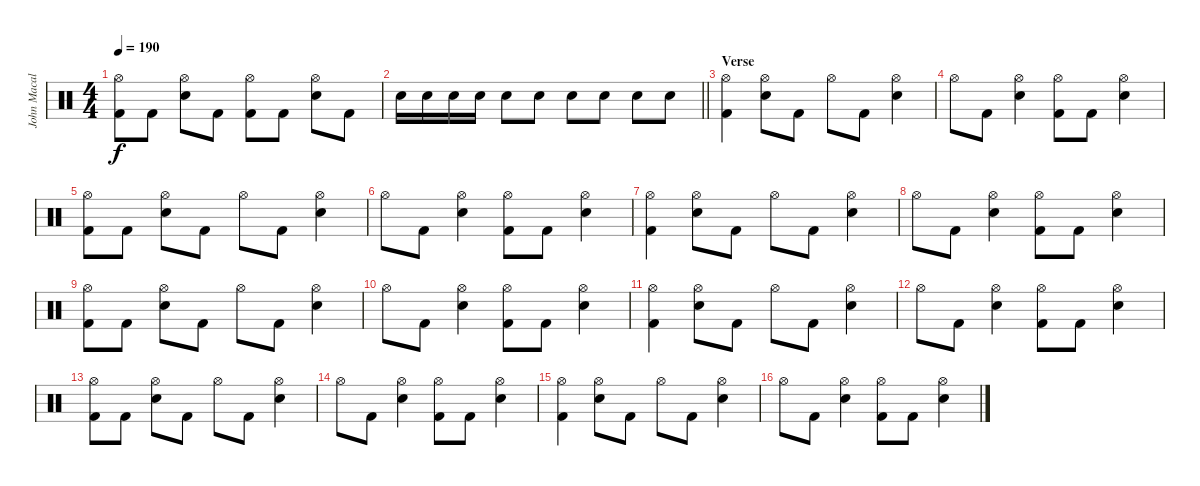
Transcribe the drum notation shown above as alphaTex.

\track ("John Macaluso" "John Macal") {instrument percussion}
\staff {score}
\articulation defaults
\ts (4 4)
\tempo 190
\clef neutral
\ks c
("Hi-Hat (open)" "Kick (hit) 2").8{dy f} "Kick (hit) 2".8 ("Hi-Hat (open)" "Snare (hit) 2").8 "Kick (hit) 2".8 ("Hi-Hat (open)" "Kick (hit) 2").8 "Kick (hit) 2".8 ("Hi-Hat (open)" "Snare (hit) 2").8 "Kick (hit) 2".8 |
\barLineRight lightlight "Snare (hit) 2".16 "Snare (hit) 2".16 "Snare (hit) 2".16 "Snare (hit) 2".16 "Snare (hit) 2".8 "Snare (hit) 2".8 "Snare (hit) 2".8 "Snare (hit) 2".8 "Snare (hit) 2".8 "Snare (hit) 2".8
|
\section ("" "Verse")
("Hi-Hat (open)" "Kick (hit) 2").4 ("Hi-Hat (open)" "Snare (hit) 2").8 "Kick (hit) 2".8 "Hi-Hat (open)".8 "Kick (hit) 2".8 ("Hi-Hat (open)" "Snare (hit) 2").4 |
"Hi-Hat (open)".8 "Kick (hit) 2".8 ("Hi-Hat (open)" "Snare (hit) 2").4 ("Hi-Hat (open)" "Kick (hit) 2").8 "Kick (hit) 2".8 ("Hi-Hat (open)" "Snare (hit) 2").4 |
("Hi-Hat (open)" "Kick (hit) 2").8 "Kick (hit) 2".8 ("Hi-Hat (open)" "Snare (hit) 2").8 "Kick (hit) 2".8 "Hi-Hat (open)".8 "Kick (hit) 2".8 ("Hi-Hat (open)" "Snare (hit) 2").4 |
"Hi-Hat (open)".8 "Kick (hit) 2".8 ("Hi-Hat (open)" "Snare (hit) 2").4 ("Hi-Hat (open)" "Kick (hit) 2").8 "Kick (hit) 2".8 ("Hi-Hat (open)" "Snare (hit) 2").4 |
("Hi-Hat (open)" "Kick (hit) 2").4 ("Hi-Hat (open)" "Snare (hit) 2").8 "Kick (hit) 2".8 "Hi-Hat (open)".8 "Kick (hit) 2".8 ("Hi-Hat (open)" "Snare (hit) 2").4 |
"Hi-Hat (open)".8 "Kick (hit) 2".8 ("Hi-Hat (open)" "Snare (hit) 2").4 ("Hi-Hat (open)" "Kick (hit) 2").8 "Kick (hit) 2".8 ("Hi-Hat (open)" "Snare (hit) 2").4 |
("Hi-Hat (open)" "Kick (hit) 2").8 "Kick (hit) 2".8 ("Hi-Hat (open)" "Snare (hit) 2").8 "Kick (hit) 2".8 "Hi-Hat (open)".8 "Kick (hit) 2".8 ("Hi-Hat (open)" "Snare (hit) 2").4 |
"Hi-Hat (open)".8 "Kick (hit) 2".8 ("Hi-Hat (open)" "Snare (hit) 2").4 ("Hi-Hat (open)" "Kick (hit) 2").8 "Kick (hit) 2".8 ("Hi-Hat (open)" "Snare (hit) 2").4 |
("Hi-Hat (open)" "Kick (hit) 2").4 ("Hi-Hat (open)" "Snare (hit) 2").8 "Kick (hit) 2".8 "Hi-Hat (open)".8 "Kick (hit) 2".8 ("Hi-Hat (open)" "Snare (hit) 2").4 |
"Hi-Hat (open)".8 "Kick (hit) 2".8 ("Hi-Hat (open)" "Snare (hit) 2").4 ("Hi-Hat (open)" "Kick (hit) 2").8 "Kick (hit) 2".8 ("Hi-Hat (open)" "Snare (hit) 2").4 |
("Hi-Hat (open)" "Kick (hit) 2").8 "Kick (hit) 2".8 ("Hi-Hat (open)" "Snare (hit) 2").8 "Kick (hit) 2".8 "Hi-Hat (open)".8 "Kick (hit) 2".8 ("Hi-Hat (open)" "Snare (hit) 2").4 |
"Hi-Hat (open)".8 "Kick (hit) 2".8 ("Hi-Hat (open)" "Snare (hit) 2").4 ("Hi-Hat (open)" "Kick (hit) 2").8 "Kick (hit) 2".8 ("Hi-Hat (open)" "Snare (hit) 2").4 |
("Hi-Hat (open)" "Kick (hit) 2").4 ("Hi-Hat (open)" "Snare (hit) 2").8 "Kick (hit) 2".8 "Hi-Hat (open)".8 "Kick (hit) 2".8 ("Hi-Hat (open)" "Snare (hit) 2").4 |
"Hi-Hat (open)".8 "Kick (hit) 2".8 ("Hi-Hat (open)" "Snare (hit) 2").4 ("Hi-Hat (open)" "Kick (hit) 2").8 "Kick (hit) 2".8 ("Hi-Hat (open)" "Snare (hit) 2").4
